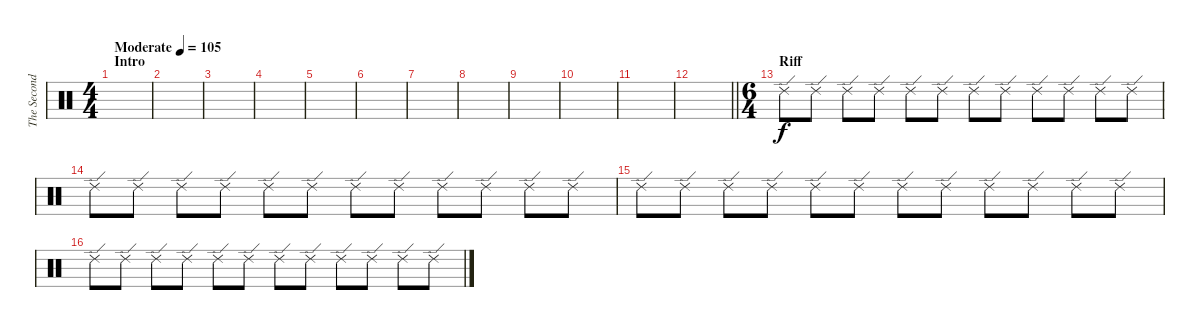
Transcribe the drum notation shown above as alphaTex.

\track ("The Second Drummer" "The Second") {instrument percussion}
\staff {score}
\articulation defaults
\ts (4 4)
\section ("" "Intro")
\tempo (105 "Moderate")
\clef neutral
\ks c
|
|
|
|
|
|
|
|
|
|
|
\barLineRight lightlight
|
\ts (6 4)
\section ("" "Riff")
"Ride (edge) 2".8 "Ride (edge) 2".8 "Ride (edge) 2".8 "Ride (edge) 2".8 "Ride (edge) 2".8 "Ride (edge) 2".8 "Ride (edge) 2".8 "Ride (edge) 2".8 "Ride (edge) 2".8 "Ride (edge) 2".8 "Ride (edge) 2".8 "Ride (edge) 2".8 |
"Ride (edge) 2".8 "Ride (edge) 2".8 "Ride (edge) 2".8 "Ride (edge) 2".8 "Ride (edge) 2".8 "Ride (edge) 2".8 "Ride (edge) 2".8 "Ride (edge) 2".8 "Ride (edge) 2".8 "Ride (edge) 2".8 "Ride (edge) 2".8 "Ride (edge) 2".8 |
"Ride (edge) 2".8 "Ride (edge) 2".8 "Ride (edge) 2".8 "Ride (edge) 2".8 "Ride (edge) 2".8 "Ride (edge) 2".8 "Ride (edge) 2".8 "Ride (edge) 2".8 "Ride (edge) 2".8 "Ride (edge) 2".8 "Ride (edge) 2".8 "Ride (edge) 2".8 |
"Ride (edge) 2".8 "Ride (edge) 2".8 "Ride (edge) 2".8 "Ride (edge) 2".8 "Ride (edge) 2".8 "Ride (edge) 2".8 "Ride (edge) 2".8 "Ride (edge) 2".8 "Ride (edge) 2".8 "Ride (edge) 2".8 "Ride (edge) 2".8 "Ride (edge) 2".8
